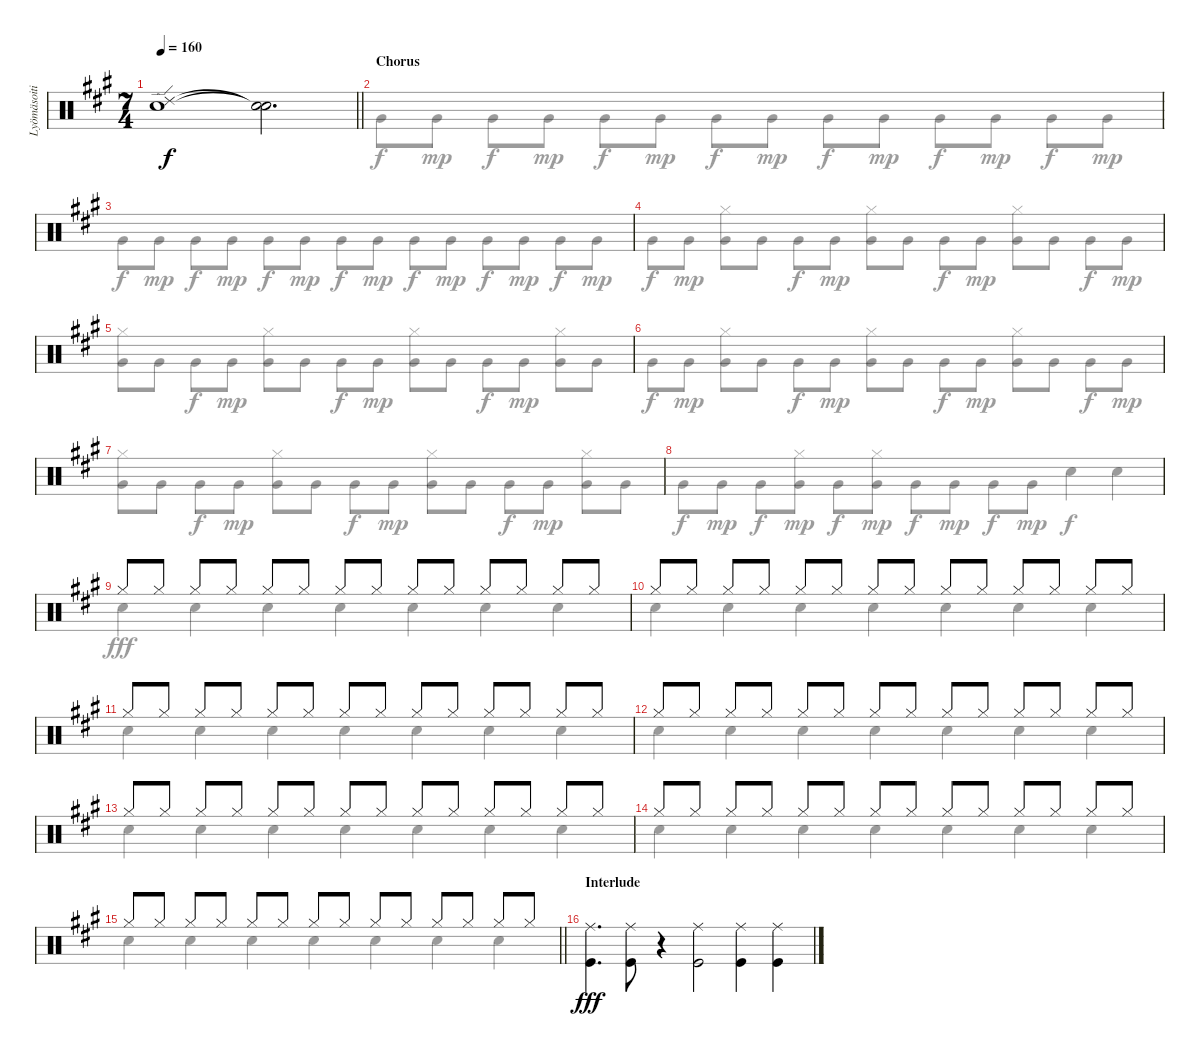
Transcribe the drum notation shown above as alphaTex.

\track ("Lyömäsoitin" "Lyömäsoiti") {instrument percussion}
\staff {score}
\articulation defaults
\voice
\ts (7 4)
\tempo 160
\clef neutral
\barLineRight lightlight
\ks a
("Ride (edge) 2"{t} "Snare (hit) 2"{t}).1{dy f} ("Snare (hit)"{t} "Snare (hit)"{t}).2{d} |
\section ("" "Chorus")
|
|
|
|
|
|
|
"Hi-Hat (closed)".8 "Hi-Hat (closed)".8 "Hi-Hat (closed)".8 "Hi-Hat (closed)".8 "Hi-Hat (closed)".8 "Hi-Hat (closed)".8 "Hi-Hat (closed)".8 "Hi-Hat (closed)".8 "Hi-Hat (closed)".8 "Hi-Hat (closed)".8 "Hi-Hat (closed)".8 "Hi-Hat (closed)".8 "Hi-Hat (closed)".8 "Hi-Hat (closed)".8 |
"Hi-Hat (closed)".8 "Hi-Hat (closed)".8 "Hi-Hat (closed)".8 "Hi-Hat (closed)".8 "Hi-Hat (closed)".8 "Hi-Hat (closed)".8 "Hi-Hat (closed)".8 "Hi-Hat (closed)".8 "Hi-Hat (closed)".8 "Hi-Hat (closed)".8 "Hi-Hat (closed)".8 "Hi-Hat (closed)".8 "Hi-Hat (closed)".8 "Hi-Hat (closed)".8 |
"Hi-Hat (closed)".8 "Hi-Hat (closed)".8 "Hi-Hat (closed)".8 "Hi-Hat (closed)".8 "Hi-Hat (closed)".8 "Hi-Hat (closed)".8 "Hi-Hat (closed)".8 "Hi-Hat (closed)".8 "Hi-Hat (closed)".8 "Hi-Hat (closed)".8 "Hi-Hat (closed)".8 "Hi-Hat (closed)".8 "Hi-Hat (closed)".8 "Hi-Hat (closed)".8 |
"Hi-Hat (closed)".8 "Hi-Hat (closed)".8 "Hi-Hat (closed)".8 "Hi-Hat (closed)".8 "Hi-Hat (closed)".8 "Hi-Hat (closed)".8 "Hi-Hat (closed)".8 "Hi-Hat (closed)".8 "Hi-Hat (closed)".8 "Hi-Hat (closed)".8 "Hi-Hat (closed)".8 "Hi-Hat (closed)".8 "Hi-Hat (closed)".8 "Hi-Hat (closed)".8 |
"Hi-Hat (closed)".8 "Hi-Hat (closed)".8 "Hi-Hat (closed)".8 "Hi-Hat (closed)".8 "Hi-Hat (closed)".8 "Hi-Hat (closed)".8 "Hi-Hat (closed)".8 "Hi-Hat (closed)".8 "Hi-Hat (closed)".8 "Hi-Hat (closed)".8 "Hi-Hat (closed)".8 "Hi-Hat (closed)".8 "Hi-Hat (closed)".8 "Hi-Hat (closed)".8 |
"Hi-Hat (closed)".8 "Hi-Hat (closed)".8 "Hi-Hat (closed)".8 "Hi-Hat (closed)".8 "Hi-Hat (closed)".8 "Hi-Hat (closed)".8 "Hi-Hat (closed)".8 "Hi-Hat (closed)".8 "Hi-Hat (closed)".8 "Hi-Hat (closed)".8 "Hi-Hat (closed)".8 "Hi-Hat (closed)".8 "Hi-Hat (closed)".8 "Hi-Hat (closed)".8 |
\barLineRight lightlight "Hi-Hat (closed)".8 "Hi-Hat (closed)".8 "Hi-Hat (closed)".8 "Hi-Hat (closed)".8 "Hi-Hat (closed)".8 "Hi-Hat (closed)".8 "Hi-Hat (closed)".8 "Hi-Hat (closed)".8 "Hi-Hat (closed)".8 "Hi-Hat (closed)".8 "Hi-Hat (closed)".8 "Hi-Hat (closed)".8 "Hi-Hat (closed)".8 "Hi-Hat (closed)".8
|
\section ("" "Interlude")
("Ride (middle)" "Kick (hit)").4{d dy fff volume 12} ("Ride (middle)" "Kick (hit)").8 r.4 ("Ride (middle)" "Kick (hit)").2 ("Ride (middle)" "Kick (hit)").4 ("Ride (middle)" "Kick (hit)").4
\voice
\clef neutral
\ottava regular
\simile none
\barLineRight lightlight
\ks a
|
"Very Low Tom (hit)".8{dy f} "Very Low Tom (hit)".8{dy mp} "Very Low Tom (hit)".8{dy f} "Very Low Tom (hit)".8{dy mp} "Very Low Tom (hit)".8{dy f} "Very Low Tom (hit)".8{dy mp} "Very Low Tom (hit)".8{dy f} "Very Low Tom (hit)".8{dy mp} "Very Low Tom (hit)".8{dy f} "Very Low Tom (hit)".8{dy mp} "Very Low Tom (hit)".8{dy f} "Very Low Tom (hit)".8{dy mp} "Very Low Tom (hit)".8{dy f} "Very Low Tom (hit)".8{dy mp} |
"Very Low Tom (hit)".8{dy f} "Very Low Tom (hit)".8{dy mp} "Very Low Tom (hit)".8{dy f} "Very Low Tom (hit)".8{dy mp} "Very Low Tom (hit)".8{dy f} "Very Low Tom (hit)".8{dy mp} "Very Low Tom (hit)".8{dy f} "Very Low Tom (hit)".8{dy mp} "Very Low Tom (hit)".8{dy f} "Very Low Tom (hit)".8{dy mp} "Very Low Tom (hit)".8{dy f} "Very Low Tom (hit)".8{dy mp} "Very Low Tom (hit)".8{dy f} "Very Low Tom (hit)".8{dy mp} |
"Very Low Tom (hit)".8{dy f} "Very Low Tom (hit)".8{dy mp} ("Hi-Hat (closed)" "Very Low Tom (hit)").8 "Very Low Tom (hit)".8 "Very Low Tom (hit)".8{dy f} "Very Low Tom (hit)".8{dy mp} ("Hi-Hat (closed)" "Very Low Tom (hit)").8 "Very Low Tom (hit)".8 "Very Low Tom (hit)".8{dy f} "Very Low Tom (hit)".8{dy mp} ("Hi-Hat (closed)" "Very Low Tom (hit)").8 "Very Low Tom (hit)".8 "Very Low Tom (hit)".8{dy f} "Very Low Tom (hit)".8{dy mp} |
("Hi-Hat (closed)" "Very Low Tom (hit)").8 "Very Low Tom (hit)".8 "Very Low Tom (hit)".8{dy f} "Very Low Tom (hit)".8{dy mp} ("Hi-Hat (closed)" "Very Low Tom (hit)").8 "Very Low Tom (hit)".8 "Very Low Tom (hit)".8{dy f} "Very Low Tom (hit)".8{dy mp} ("Hi-Hat (closed)" "Very Low Tom (hit)").8 "Very Low Tom (hit)".8 "Very Low Tom (hit)".8{dy f} "Very Low Tom (hit)".8{dy mp} ("Hi-Hat (closed)" "Very Low Tom (hit)").8 "Very Low Tom (hit)".8 |
"Very Low Tom (hit)".8{dy f} "Very Low Tom (hit)".8{dy mp} ("Hi-Hat (closed)" "Very Low Tom (hit)").8 "Very Low Tom (hit)".8 "Very Low Tom (hit)".8{dy f} "Very Low Tom (hit)".8{dy mp} ("Hi-Hat (closed)" "Very Low Tom (hit)").8 "Very Low Tom (hit)".8 "Very Low Tom (hit)".8{dy f} "Very Low Tom (hit)".8{dy mp} ("Hi-Hat (closed)" "Very Low Tom (hit)").8 "Very Low Tom (hit)".8 "Very Low Tom (hit)".8{dy f} "Very Low Tom (hit)".8{dy mp} |
("Hi-Hat (closed)" "Very Low Tom (hit)").8 "Very Low Tom (hit)".8 "Very Low Tom (hit)".8{dy f} "Very Low Tom (hit)".8{dy mp} ("Hi-Hat (closed)" "Very Low Tom (hit)").8 "Very Low Tom (hit)".8 "Very Low Tom (hit)".8{dy f} "Very Low Tom (hit)".8{dy mp} ("Hi-Hat (closed)" "Very Low Tom (hit)").8 "Very Low Tom (hit)".8 "Very Low Tom (hit)".8{dy f} "Very Low Tom (hit)".8{dy mp} ("Hi-Hat (closed)" "Very Low Tom (hit)").8 "Very Low Tom (hit)".8 |
"Very Low Tom (hit)".8{dy f} "Very Low Tom (hit)".8{dy mp} "Very Low Tom (hit)".8{dy f} ("Hi-Hat (closed)" "Very Low Tom (hit)").8{dy mp} "Very Low Tom (hit)".8{dy f} ("Hi-Hat (closed)" "Very Low Tom (hit)").8{dy mp} "Very Low Tom (hit)".8{dy f} "Very Low Tom (hit)".8{dy mp} "Very Low Tom (hit)".8{dy f} "Very Low Tom (hit)".8{dy mp} "Snare (hit) 2".4{dy f} "Snare (hit) 2".4 |
"Snare (hit) 2".4{dy fff} "Snare (hit) 2".4 "Snare (hit) 2".4 "Snare (hit) 2".4 "Snare (hit) 2".4 "Snare (hit) 2".4 "Snare (hit) 2".4 |
"Snare (hit) 2".4 "Snare (hit) 2".4 "Snare (hit) 2".4 "Snare (hit) 2".4 "Snare (hit) 2".4 "Snare (hit) 2".4 "Snare (hit) 2".4 |
"Snare (hit) 2".4 "Snare (hit) 2".4 "Snare (hit) 2".4 "Snare (hit) 2".4 "Snare (hit) 2".4 "Snare (hit) 2".4 "Snare (hit) 2".4 |
"Snare (hit) 2".4 "Snare (hit) 2".4 "Snare (hit) 2".4 "Snare (hit) 2".4 "Snare (hit) 2".4 "Snare (hit) 2".4 "Snare (hit) 2".4 |
"Snare (hit) 2".4 "Snare (hit) 2".4 "Snare (hit) 2".4 "Snare (hit) 2".4 "Snare (hit) 2".4 "Snare (hit) 2".4 "Snare (hit) 2".4 |
"Snare (hit) 2".4 "Snare (hit) 2".4 "Snare (hit) 2".4 "Snare (hit) 2".4 "Snare (hit) 2".4 "Snare (hit) 2".4 "Snare (hit) 2".4 |
\barLineRight lightlight "Snare (hit) 2".4 "Snare (hit) 2".4 "Snare (hit) 2".4 "Snare (hit) 2".4 "Snare (hit) 2".4 "Snare (hit) 2".4 "Snare (hit) 2".4
|
